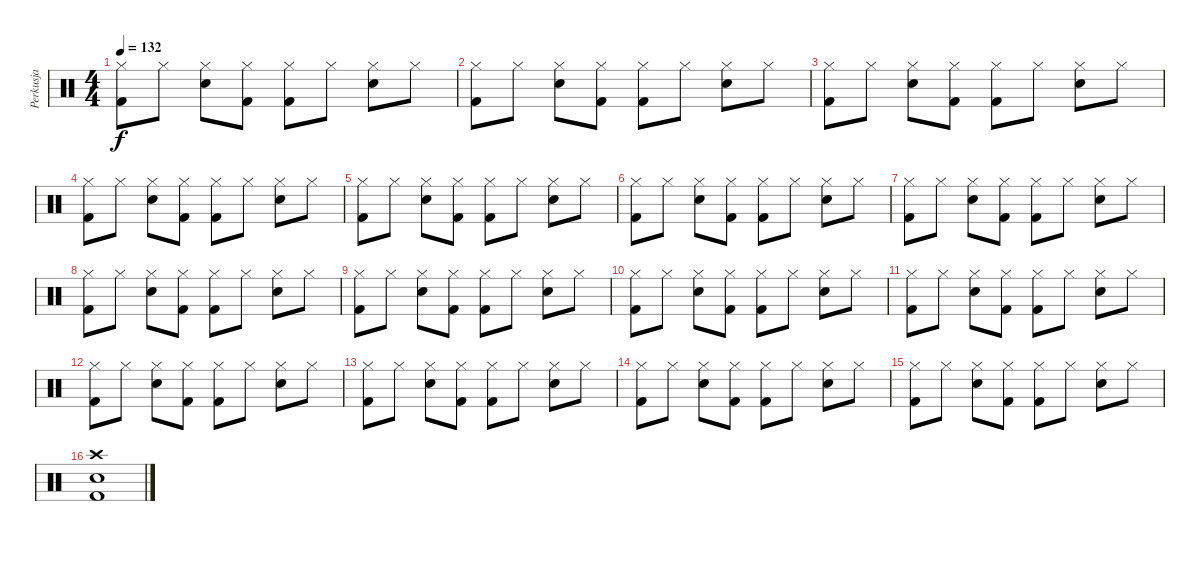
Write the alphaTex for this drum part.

\track ("Perkusja" "Perkusja") {instrument percussion}
\staff {score}
\articulation defaults
\ts (4 4)
\tempo 132
\clef neutral
\ks c
("Kick (hit) 2" "Hi-Hat (closed)").8{dy f} "Hi-Hat (closed)".8 ("Snare (hit) 2" "Hi-Hat (closed)").8 ("Kick (hit) 2" "Hi-Hat (closed)").8 ("Kick (hit) 2" "Hi-Hat (closed)").8 "Hi-Hat (closed)".8 ("Snare (hit) 2" "Hi-Hat (closed)").8 "Hi-Hat (closed)".8 |
("Kick (hit) 2" "Hi-Hat (closed)").8 "Hi-Hat (closed)".8 ("Snare (hit) 2" "Hi-Hat (closed)").8 ("Kick (hit) 2" "Hi-Hat (closed)").8 ("Kick (hit) 2" "Hi-Hat (closed)").8 "Hi-Hat (closed)".8 ("Snare (hit) 2" "Hi-Hat (closed)").8 "Hi-Hat (closed)".8 |
("Kick (hit) 2" "Hi-Hat (closed)").8 "Hi-Hat (closed)".8 ("Snare (hit) 2" "Hi-Hat (closed)").8 ("Kick (hit) 2" "Hi-Hat (closed)").8 ("Kick (hit) 2" "Hi-Hat (closed)").8 "Hi-Hat (closed)".8 ("Snare (hit) 2" "Hi-Hat (closed)").8 "Hi-Hat (closed)".8 |
("Kick (hit) 2" "Hi-Hat (closed)").8 "Hi-Hat (closed)".8 ("Snare (hit) 2" "Hi-Hat (closed)").8 ("Kick (hit) 2" "Hi-Hat (closed)").8 ("Kick (hit) 2" "Hi-Hat (closed)").8 "Hi-Hat (closed)".8 ("Snare (hit) 2" "Hi-Hat (closed)").8 "Hi-Hat (closed)".8 |
("Kick (hit) 2" "Hi-Hat (closed)").8 "Hi-Hat (closed)".8 ("Snare (hit) 2" "Hi-Hat (closed)").8 ("Kick (hit) 2" "Hi-Hat (closed)").8 ("Kick (hit) 2" "Hi-Hat (closed)").8 "Hi-Hat (closed)".8 ("Snare (hit) 2" "Hi-Hat (closed)").8 "Hi-Hat (closed)".8 |
("Kick (hit) 2" "Hi-Hat (closed)").8 "Hi-Hat (closed)".8 ("Snare (hit) 2" "Hi-Hat (closed)").8 ("Kick (hit) 2" "Hi-Hat (closed)").8 ("Kick (hit) 2" "Hi-Hat (closed)").8 "Hi-Hat (closed)".8 ("Snare (hit) 2" "Hi-Hat (closed)").8 "Hi-Hat (closed)".8 |
("Kick (hit) 2" "Hi-Hat (closed)").8 "Hi-Hat (closed)".8 ("Snare (hit) 2" "Hi-Hat (closed)").8 ("Kick (hit) 2" "Hi-Hat (closed)").8 ("Kick (hit) 2" "Hi-Hat (closed)").8 "Hi-Hat (closed)".8 ("Snare (hit) 2" "Hi-Hat (closed)").8 "Hi-Hat (closed)".8 |
("Kick (hit) 2" "Hi-Hat (closed)").8 "Hi-Hat (closed)".8 ("Snare (hit) 2" "Hi-Hat (closed)").8 ("Kick (hit) 2" "Hi-Hat (closed)").8 ("Kick (hit) 2" "Hi-Hat (closed)").8 "Hi-Hat (closed)".8 ("Snare (hit) 2" "Hi-Hat (closed)").8 "Hi-Hat (closed)".8 |
("Kick (hit) 2" "Hi-Hat (closed)").8 "Hi-Hat (closed)".8 ("Snare (hit) 2" "Hi-Hat (closed)").8 ("Kick (hit) 2" "Hi-Hat (closed)").8 ("Kick (hit) 2" "Hi-Hat (closed)").8 "Hi-Hat (closed)".8 ("Snare (hit) 2" "Hi-Hat (closed)").8 "Hi-Hat (closed)".8 |
("Kick (hit) 2" "Hi-Hat (closed)").8 "Hi-Hat (closed)".8 ("Snare (hit) 2" "Hi-Hat (closed)").8 ("Kick (hit) 2" "Hi-Hat (closed)").8 ("Kick (hit) 2" "Hi-Hat (closed)").8 "Hi-Hat (closed)".8 ("Snare (hit) 2" "Hi-Hat (closed)").8 "Hi-Hat (closed)".8 |
("Kick (hit) 2" "Hi-Hat (closed)").8 "Hi-Hat (closed)".8 ("Snare (hit) 2" "Hi-Hat (closed)").8 ("Kick (hit) 2" "Hi-Hat (closed)").8 ("Kick (hit) 2" "Hi-Hat (closed)").8 "Hi-Hat (closed)".8 ("Snare (hit) 2" "Hi-Hat (closed)").8 "Hi-Hat (closed)".8 |
("Kick (hit) 2" "Hi-Hat (closed)").8 "Hi-Hat (closed)".8 ("Snare (hit) 2" "Hi-Hat (closed)").8 ("Kick (hit) 2" "Hi-Hat (closed)").8 ("Kick (hit) 2" "Hi-Hat (closed)").8 "Hi-Hat (closed)".8 ("Snare (hit) 2" "Hi-Hat (closed)").8 "Hi-Hat (closed)".8 |
("Kick (hit) 2" "Hi-Hat (closed)").8 "Hi-Hat (closed)".8 ("Snare (hit) 2" "Hi-Hat (closed)").8 ("Kick (hit) 2" "Hi-Hat (closed)").8 ("Kick (hit) 2" "Hi-Hat (closed)").8 "Hi-Hat (closed)".8 ("Snare (hit) 2" "Hi-Hat (closed)").8 "Hi-Hat (closed)".8 |
("Kick (hit) 2" "Hi-Hat (closed)").8 "Hi-Hat (closed)".8 ("Snare (hit) 2" "Hi-Hat (closed)").8 ("Kick (hit) 2" "Hi-Hat (closed)").8 ("Kick (hit) 2" "Hi-Hat (closed)").8 "Hi-Hat (closed)".8 ("Snare (hit) 2" "Hi-Hat (closed)").8 "Hi-Hat (closed)".8 |
("Kick (hit) 2" "Hi-Hat (closed)").8 "Hi-Hat (closed)".8 ("Snare (hit) 2" "Hi-Hat (closed)").8 ("Kick (hit) 2" "Hi-Hat (closed)").8 ("Kick (hit) 2" "Hi-Hat (closed)").8 "Hi-Hat (closed)".8 ("Snare (hit) 2" "Hi-Hat (closed)").8 "Hi-Hat (closed)".8 |
("Kick (hit) 2" "Snare (hit) 2" "Crash high (hit)").1
